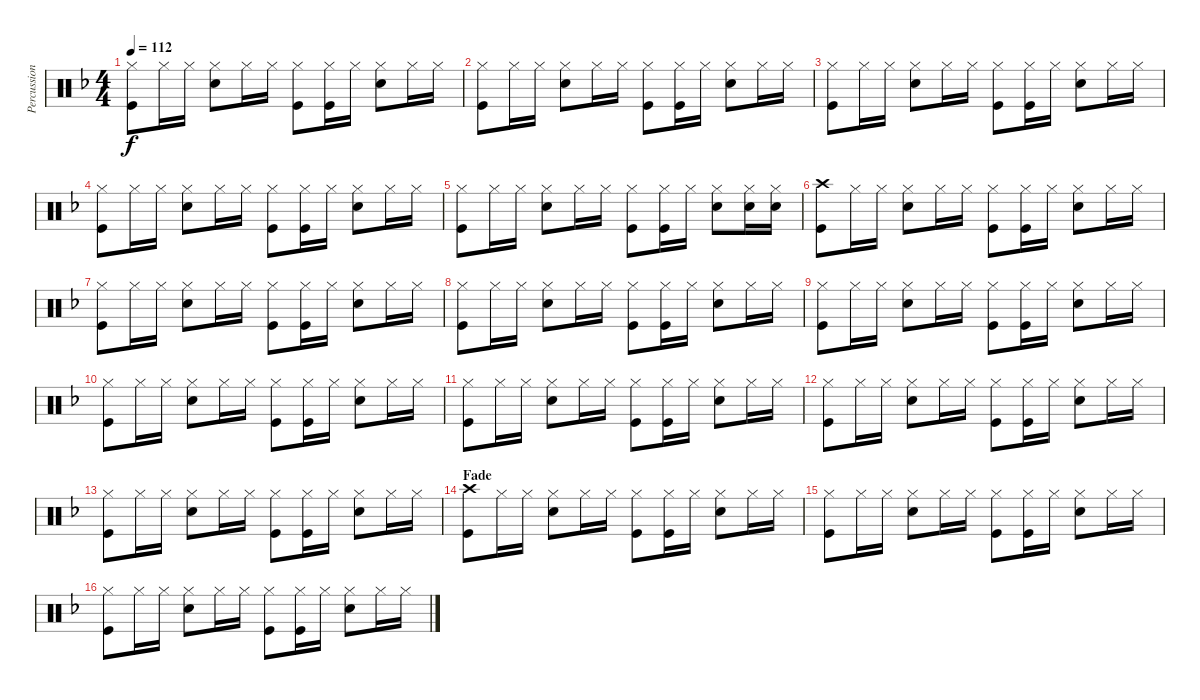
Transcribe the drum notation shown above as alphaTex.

\track ("Percussion" "Percussion") {instrument percussion}
\staff {score}
\articulation defaults
\ts (4 4)
\tempo 112
\clef neutral
\ks f
("Hi-Hat (closed)" "Kick (hit)").8{dy f} "Hi-Hat (closed)".16 "Hi-Hat (closed)".16 ("Hi-Hat (closed)" "Snare (hit) 2").8 "Hi-Hat (closed)".16 "Hi-Hat (closed)".16 ("Hi-Hat (closed)" "Kick (hit)").8 ("Hi-Hat (closed)" "Kick (hit)").16 "Hi-Hat (closed)".16 ("Hi-Hat (closed)" "Snare (hit) 2").8 "Hi-Hat (closed)".16 "Hi-Hat (closed)".16 |
("Hi-Hat (closed)" "Kick (hit)").8 "Hi-Hat (closed)".16 "Hi-Hat (closed)".16 ("Hi-Hat (closed)" "Snare (hit) 2").8 "Hi-Hat (closed)".16 "Hi-Hat (closed)".16 ("Hi-Hat (closed)" "Kick (hit)").8 ("Hi-Hat (closed)" "Kick (hit)").16 "Hi-Hat (closed)".16 ("Hi-Hat (closed)" "Snare (hit) 2").8 "Hi-Hat (closed)".16 "Hi-Hat (closed)".16 |
("Hi-Hat (closed)" "Kick (hit)").8 "Hi-Hat (closed)".16 "Hi-Hat (closed)".16 ("Hi-Hat (closed)" "Snare (hit) 2").8 "Hi-Hat (closed)".16 "Hi-Hat (closed)".16 ("Hi-Hat (closed)" "Kick (hit)").8 ("Hi-Hat (closed)" "Kick (hit)").16 "Hi-Hat (closed)".16 ("Hi-Hat (closed)" "Snare (hit) 2").8 "Hi-Hat (closed)".16 "Hi-Hat (closed)".16 |
("Hi-Hat (closed)" "Kick (hit)").8 "Hi-Hat (closed)".16 "Hi-Hat (closed)".16 ("Hi-Hat (closed)" "Snare (hit) 2").8 "Hi-Hat (closed)".16 "Hi-Hat (closed)".16 ("Hi-Hat (closed)" "Kick (hit)").8 ("Hi-Hat (closed)" "Kick (hit)").16 "Hi-Hat (closed)".16 ("Hi-Hat (closed)" "Snare (hit) 2").8 "Hi-Hat (closed)".16 "Hi-Hat (closed)".16 |
("Hi-Hat (closed)" "Kick (hit)").8 "Hi-Hat (closed)".16 "Hi-Hat (closed)".16 ("Hi-Hat (closed)" "Snare (hit) 2").8 "Hi-Hat (closed)".16 "Hi-Hat (closed)".16 ("Hi-Hat (closed)" "Kick (hit)").8 ("Hi-Hat (closed)" "Kick (hit)").16 "Hi-Hat (closed)".16 ("Hi-Hat (closed)" "Snare (hit) 2").8 ("Hi-Hat (closed)" "Snare (hit) 2").16 ("Hi-Hat (closed)" "Snare (hit) 2").16 |
("Crash high (hit)" "Kick (hit)").8 "Hi-Hat (closed)".16 "Hi-Hat (closed)".16 ("Hi-Hat (closed)" "Snare (hit) 2").8 "Hi-Hat (closed)".16 "Hi-Hat (closed)".16 ("Hi-Hat (closed)" "Kick (hit)").8 ("Hi-Hat (closed)" "Kick (hit)").16 "Hi-Hat (closed)".16 ("Hi-Hat (closed)" "Snare (hit) 2").8 "Hi-Hat (closed)".16 "Hi-Hat (closed)".16 |
("Hi-Hat (closed)" "Kick (hit)").8 "Hi-Hat (closed)".16 "Hi-Hat (closed)".16 ("Hi-Hat (closed)" "Snare (hit) 2").8 "Hi-Hat (closed)".16 "Hi-Hat (closed)".16 ("Hi-Hat (closed)" "Kick (hit)").8 ("Hi-Hat (closed)" "Kick (hit)").16 "Hi-Hat (closed)".16 ("Hi-Hat (closed)" "Snare (hit) 2").8 "Hi-Hat (closed)".16 "Hi-Hat (closed)".16 |
("Hi-Hat (closed)" "Kick (hit)").8 "Hi-Hat (closed)".16 "Hi-Hat (closed)".16 ("Hi-Hat (closed)" "Snare (hit) 2").8 "Hi-Hat (closed)".16 "Hi-Hat (closed)".16 ("Hi-Hat (closed)" "Kick (hit)").8 ("Hi-Hat (closed)" "Kick (hit)").16 "Hi-Hat (closed)".16 ("Hi-Hat (closed)" "Snare (hit) 2").8 "Hi-Hat (closed)".16 "Hi-Hat (closed)".16 |
("Hi-Hat (closed)" "Kick (hit)").8 "Hi-Hat (closed)".16 "Hi-Hat (closed)".16 ("Hi-Hat (closed)" "Snare (hit) 2").8 "Hi-Hat (closed)".16 "Hi-Hat (closed)".16 ("Hi-Hat (closed)" "Kick (hit)").8 ("Hi-Hat (closed)" "Kick (hit)").16 "Hi-Hat (closed)".16 ("Hi-Hat (closed)" "Snare (hit) 2").8 "Hi-Hat (closed)".16 "Hi-Hat (closed)".16 |
("Hi-Hat (closed)" "Kick (hit)").8 "Hi-Hat (closed)".16 "Hi-Hat (closed)".16 ("Hi-Hat (closed)" "Snare (hit) 2").8 "Hi-Hat (closed)".16 "Hi-Hat (closed)".16 ("Hi-Hat (closed)" "Kick (hit)").8 ("Hi-Hat (closed)" "Kick (hit)").16 "Hi-Hat (closed)".16 ("Hi-Hat (closed)" "Snare (hit) 2").8 "Hi-Hat (closed)".16 "Hi-Hat (closed)".16 |
("Hi-Hat (closed)" "Kick (hit)").8 "Hi-Hat (closed)".16 "Hi-Hat (closed)".16 ("Hi-Hat (closed)" "Snare (hit) 2").8 "Hi-Hat (closed)".16 "Hi-Hat (closed)".16 ("Hi-Hat (closed)" "Kick (hit)").8 ("Hi-Hat (closed)" "Kick (hit)").16 "Hi-Hat (closed)".16 ("Hi-Hat (closed)" "Snare (hit) 2").8 "Hi-Hat (closed)".16 "Hi-Hat (closed)".16 |
("Hi-Hat (closed)" "Kick (hit)").8 "Hi-Hat (closed)".16 "Hi-Hat (closed)".16 ("Hi-Hat (closed)" "Snare (hit) 2").8 "Hi-Hat (closed)".16 "Hi-Hat (closed)".16 ("Hi-Hat (closed)" "Kick (hit)").8 ("Hi-Hat (closed)" "Kick (hit)").16 "Hi-Hat (closed)".16 ("Hi-Hat (closed)" "Snare (hit) 2").8 "Hi-Hat (closed)".16 "Hi-Hat (closed)".16 |
("Hi-Hat (closed)" "Kick (hit)").8 "Hi-Hat (closed)".16 "Hi-Hat (closed)".16 ("Hi-Hat (closed)" "Snare (hit) 2").8 "Hi-Hat (closed)".16 "Hi-Hat (closed)".16 ("Hi-Hat (closed)" "Kick (hit)").8 ("Hi-Hat (closed)" "Kick (hit)").16 "Hi-Hat (closed)".16 ("Hi-Hat (closed)" "Snare (hit) 2").8 "Hi-Hat (closed)".16 "Hi-Hat (closed)".16 |
\section ("" "Fade")
("Crash high (hit)" "Kick (hit)").8 "Hi-Hat (closed)".16 "Hi-Hat (closed)".16 ("Hi-Hat (closed)" "Snare (hit) 2").8 "Hi-Hat (closed)".16 "Hi-Hat (closed)".16 ("Hi-Hat (closed)" "Kick (hit)").8 ("Hi-Hat (closed)" "Kick (hit)").16 "Hi-Hat (closed)".16 ("Hi-Hat (closed)" "Snare (hit) 2").8 "Hi-Hat (closed)".16 "Hi-Hat (closed)".16 |
("Hi-Hat (closed)" "Kick (hit)").8 "Hi-Hat (closed)".16 "Hi-Hat (closed)".16 ("Hi-Hat (closed)" "Snare (hit) 2").8 "Hi-Hat (closed)".16 "Hi-Hat (closed)".16 ("Hi-Hat (closed)" "Kick (hit)").8 ("Hi-Hat (closed)" "Kick (hit)").16 "Hi-Hat (closed)".16 ("Hi-Hat (closed)" "Snare (hit) 2").8 "Hi-Hat (closed)".16 "Hi-Hat (closed)".16 |
("Hi-Hat (closed)" "Kick (hit)").8 "Hi-Hat (closed)".16 "Hi-Hat (closed)".16 ("Hi-Hat (closed)" "Snare (hit) 2").8 "Hi-Hat (closed)".16 "Hi-Hat (closed)".16 ("Hi-Hat (closed)" "Kick (hit)").8 ("Hi-Hat (closed)" "Kick (hit)").16 "Hi-Hat (closed)".16 ("Hi-Hat (closed)" "Snare (hit) 2").8 "Hi-Hat (closed)".16 "Hi-Hat (closed)".16
